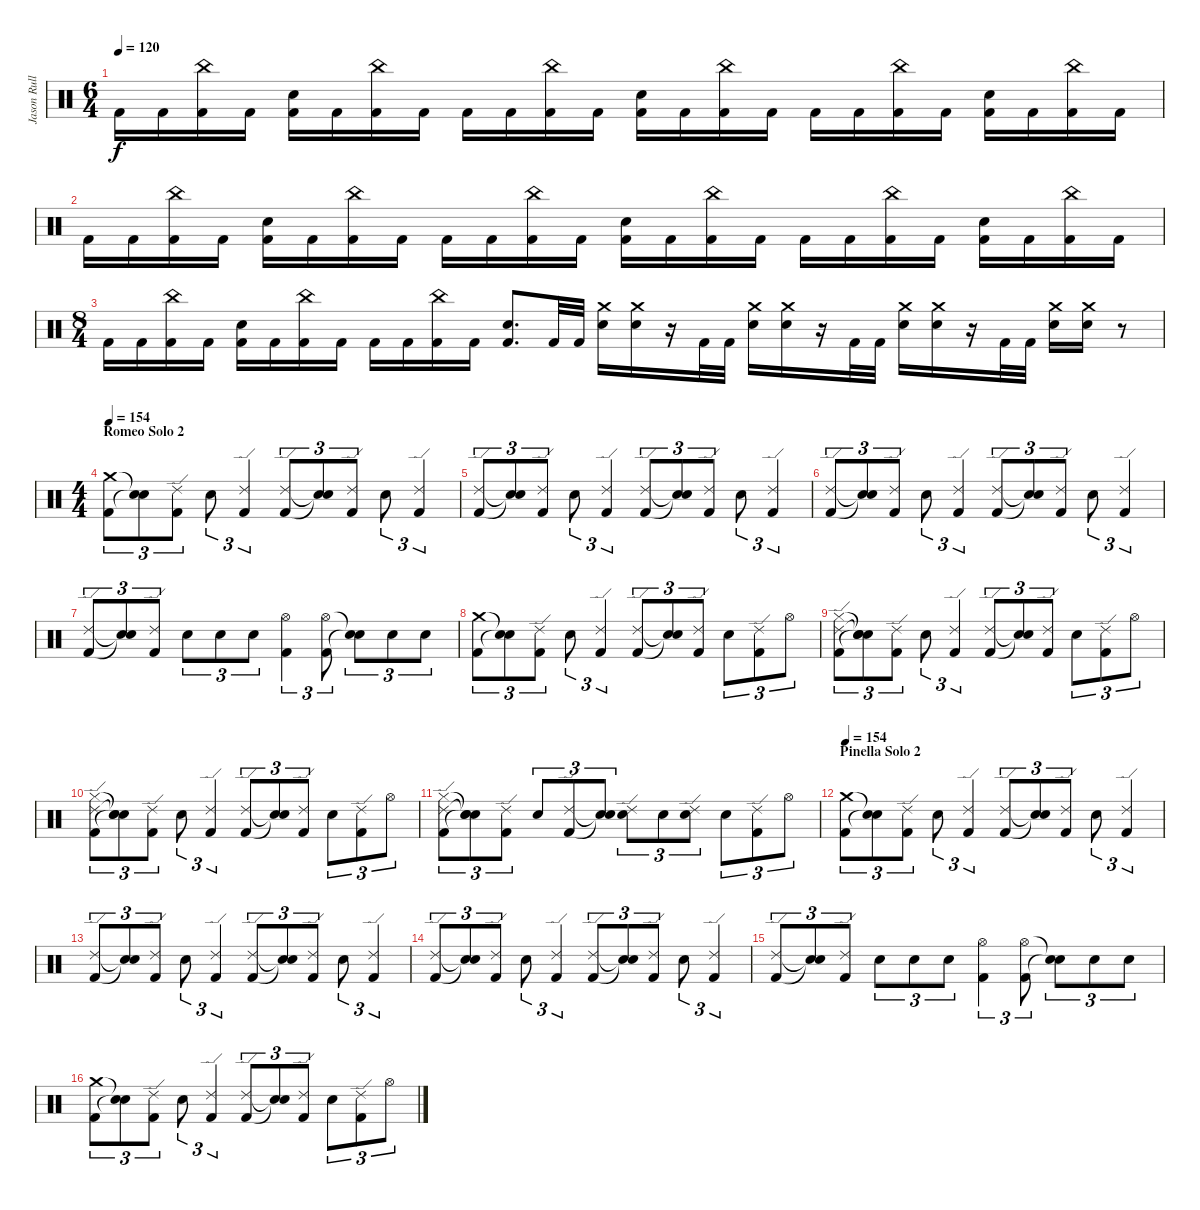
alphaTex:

\track ("Jason Rullo" "Jason Rull") {instrument percussion}
\staff {score}
\articulation defaults
\ts (6 4)
\tempo 120
\clef neutral
\ks c "Kick (hit) 2".16{dy f} "Kick (hit) 2".16
("China (hit)" "Kick (hit) 2").16 "Kick (hit) 2".16 ("Electric Snare (hit)" "Kick (hit) 2").16 "Kick (hit) 2".16 ("China (hit)" "Kick (hit) 2").16 "Kick (hit) 2".16 "Kick (hit) 2".16 "Kick (hit) 2".16 ("China (hit)" "Kick (hit) 2").16 "Kick (hit) 2".16 ("Electric Snare (hit)" "Kick (hit) 2").16 "Kick (hit) 2".16 ("China (hit)" "Kick (hit) 2").16 "Kick (hit) 2".16 "Kick (hit) 2".16 "Kick (hit) 2".16 ("China (hit)" "Kick (hit) 2").16 "Kick (hit) 2".16 ("Electric Snare (hit)" "Kick (hit) 2").16 "Kick (hit) 2".16 ("China (hit)" "Kick (hit) 2").16 "Kick (hit) 2".16 |
"Kick (hit) 2".16 "Kick (hit) 2".16 ("China (hit)" "Kick (hit) 2").16 "Kick (hit) 2".16 ("Electric Snare (hit)" "Kick (hit) 2").16 "Kick (hit) 2".16 ("China (hit)" "Kick (hit) 2").16 "Kick (hit) 2".16 "Kick (hit) 2".16 "Kick (hit) 2".16 ("China (hit)" "Kick (hit) 2").16 "Kick (hit) 2".16 ("Electric Snare (hit)" "Kick (hit) 2").16 "Kick (hit) 2".16 ("China (hit)" "Kick (hit) 2").16 "Kick (hit) 2".16 "Kick (hit) 2".16 "Kick (hit) 2".16 ("China (hit)" "Kick (hit) 2").16 "Kick (hit) 2".16 ("Electric Snare (hit)" "Kick (hit) 2").16 "Kick (hit) 2".16 ("China (hit)" "Kick (hit) 2").16 "Kick (hit) 2".16 |
\ts (8 4)
"Kick (hit) 2".16 "Kick (hit) 2".16 ("China (hit)" "Kick (hit) 2").16 "Kick (hit) 2".16 ("Electric Snare (hit)" "Kick (hit) 2").16 "Kick (hit) 2".16 ("China (hit)" "Kick (hit) 2").16 "Kick (hit) 2".16 "Kick (hit) 2".16 "Kick (hit) 2".16 ("China (hit)" "Kick (hit) 2").16 "Kick (hit) 2".16 ("Electric Snare (hit)" "Kick (hit) 2").8{d} "Kick (hit) 2".32 "Kick (hit) 2".32 ("Crash medium (hit)" "Electric Snare (hit)").16 ("Crash medium (hit)" "Electric Snare (hit)").16 r.16 "Kick (hit) 2".32 "Kick (hit) 2".32 ("Crash medium (hit)" "Electric Snare (hit)").16 ("Crash medium (hit)" "Electric Snare (hit)").16 r.16 "Kick (hit) 2".32 "Kick (hit) 2".32 ("Crash medium (hit)" "Electric Snare (hit)").16 ("Crash medium (hit)" "Electric Snare (hit)").16 r.16 "Kick (hit) 2".32 "Kick (hit) 2".32 ("Crash medium (hit)" "Electric Snare (hit)").16 ("Crash medium (hit)" "Electric Snare (hit)").16 r.8 |
\ts (4 4)
\section ("" "Romeo Solo 2")
\tempo 154
("Crash medium (hit)" "Kick (hit) 2").8{tu (3 2)} ("Snare (hit)"{t} "Snare (hit)"{t}).8{tu (3 2)} ("Ride (edge) 2" "Kick (hit) 2").8{tu (3 2)} "Electric Snare (hit)".8{tu (3 2)} ("Ride (edge) 2" "Kick (hit) 2").4{tu (3 2)} ("Ride (edge) 2" "Kick (hit) 2").8{tu (3 2)} ("Snare (hit)"{t} "Snare (hit)"{t}).8{tu (3 2)} ("Ride (edge) 2" "Kick (hit) 2").8{tu (3 2)} "Electric Snare (hit)".8{tu (3 2)} ("Ride (edge) 2" "Kick (hit) 2").4{tu (3 2)} |
("Ride (edge) 2" "Kick (hit) 2").8{tu (3 2)} ("Snare (hit)"{t} "Snare (hit)"{t}).8{tu (3 2)} ("Ride (edge) 2" "Kick (hit) 2").8{tu (3 2)} "Electric Snare (hit)".8{tu (3 2)} ("Ride (edge) 2" "Kick (hit) 2").4{tu (3 2)} ("Ride (edge) 2" "Kick (hit) 2").8{tu (3 2)} ("Snare (hit)"{t} "Snare (hit)"{t}).8{tu (3 2)} ("Ride (edge) 2" "Kick (hit) 2").8{tu (3 2)} "Electric Snare (hit)".8{tu (3 2)} ("Ride (edge) 2" "Kick (hit) 2").4{tu (3 2)} |
("Ride (edge) 2" "Kick (hit) 2").8{tu (3 2)} ("Snare (hit)"{t} "Snare (hit)"{t}).8{tu (3 2)} ("Ride (edge) 2" "Kick (hit) 2").8{tu (3 2)} "Electric Snare (hit)".8{tu (3 2)} ("Ride (edge) 2" "Kick (hit) 2").4{tu (3 2)} ("Ride (edge) 2" "Kick (hit) 2").8{tu (3 2)} ("Snare (hit)"{t} "Snare (hit)"{t}).8{tu (3 2)} ("Ride (edge) 2" "Kick (hit) 2").8{tu (3 2)} "Electric Snare (hit)".8{tu (3 2)} ("Ride (edge) 2" "Kick (hit) 2").4{tu (3 2)} |
("Ride (edge) 2" "Kick (hit) 2").8{tu (3 2)} ("Snare (hit)"{t} "Snare (hit)"{t}).8{tu (3 2)} ("Ride (edge) 2" "Kick (hit) 2").8{tu (3 2)} "Electric Snare (hit)".8{tu (3 2)} "Electric Snare (hit)".8{tu (3 2)} "Electric Snare (hit)".8{tu (3 2)} ("Hi-Hat (open)" "Kick (hit) 2").4{tu (3 2)} ("Hi-Hat (open)" "Kick (hit) 2").8{tu (3 2)} ("Snare (hit)"{t} "Snare (hit)"{t}).8{tu (3 2)} "Electric Snare (hit)".8{tu (3 2)} "Electric Snare (hit)".8{tu (3 2)} |
("Crash medium (hit)" "Kick (hit) 2").8{tu (3 2)} ("Snare (hit)"{t} "Snare (hit)"{t}).8{tu (3 2)} ("Ride (edge) 2" "Kick (hit) 2").8{tu (3 2)} "Electric Snare (hit)".8{tu (3 2)} ("Ride (edge) 2" "Kick (hit) 2").4{tu (3 2)} ("Ride (edge) 2" "Kick (hit) 2").8{tu (3 2)} ("Snare (hit)"{t} "Snare (hit)"{t}).8{tu (3 2)} ("Ride (edge) 2" "Kick (hit) 2").8{tu (3 2)} "Electric Snare (hit)".8{tu (3 2)} ("Ride (edge) 2" "Kick (hit) 2").8{tu (3 2)} "Hi-Hat (open)".8{tu (3 2)} |
("Hi-Hat (closed)" "Ride (edge) 2" "Kick (hit) 2").8{tu (3 2)} ("Snare (hit)"{t} "Snare (hit)"{t} "Snare (hit)"{t}).8{tu (3 2)} ("Ride (edge) 2" "Kick (hit) 2").8{tu (3 2)} "Electric Snare (hit)".8{tu (3 2)} ("Ride (edge) 2" "Kick (hit) 2").4{tu (3 2)} ("Ride (edge) 2" "Kick (hit) 2").8{tu (3 2)} ("Snare (hit)"{t} "Snare (hit)"{t}).8{tu (3 2)} ("Ride (edge) 2" "Kick (hit) 2").8{tu (3 2)} "Electric Snare (hit)".8{tu (3 2)} ("Ride (edge) 2" "Kick (hit) 2").8{tu (3 2)} "Hi-Hat (open)".8{tu (3 2)} |
("Hi-Hat (closed)" "Ride (edge) 2" "Kick (hit) 2").8{tu (3 2)} ("Snare (hit)"{t} "Snare (hit)"{t} "Snare (hit)"{t}).8{tu (3 2)} ("Ride (edge) 2" "Kick (hit) 2").8{tu (3 2)} "Electric Snare (hit)".8{tu (3 2)} ("Ride (edge) 2" "Kick (hit) 2").4{tu (3 2)} ("Ride (edge) 2" "Kick (hit) 2").8{tu (3 2)} ("Snare (hit)"{t} "Snare (hit)"{t}).8{tu (3 2)} ("Ride (edge) 2" "Kick (hit) 2").8{tu (3 2)} "Electric Snare (hit)".8{tu (3 2)} ("Ride (edge) 2" "Kick (hit) 2").8{tu (3 2)} "Hi-Hat (open)".8{tu (3 2)} |
("Hi-Hat (closed)" "Ride (edge) 2" "Kick (hit) 2").8{tu (3 2)} ("Snare (hit)"{t} "Snare (hit)"{t} "Snare (hit)"{t}).8{tu (3 2)} ("Ride (edge) 2" "Kick (hit) 2").8{tu (3 2)} "Electric Snare (hit)".8{tu (3 2)} ("Ride (edge) 2" "Kick (hit) 2").8{tu (3 2)} ("Snare (hit)"{t} "Snare (hit)"{t}).8{tu (3 2)} ("Electric Snare (hit)" "Ride (edge) 2").8{tu (3 2)} "Electric Snare (hit)".8{tu (3 2)} ("Electric Snare (hit)" "Ride (edge) 2").8{tu (3 2)} "Electric Snare (hit)".8{tu (3 2)} ("Ride (edge) 2" "Kick (hit) 2").8{tu (3 2)} "Hi-Hat (open)".8{tu (3 2)} |
\section ("" "Pinella Solo 2")
\tempo 154
("Crash medium (hit)" "Kick (hit) 2").8{tu (3 2)} ("Snare (hit)"{t} "Snare (hit)"{t}).8{tu (3 2)} ("Ride (edge) 2" "Kick (hit) 2").8{tu (3 2)} "Electric Snare (hit)".8{tu (3 2)} ("Ride (edge) 2" "Kick (hit) 2").4{tu (3 2)} ("Ride (edge) 2" "Kick (hit) 2").8{tu (3 2)} ("Snare (hit)"{t} "Snare (hit)"{t}).8{tu (3 2)} ("Ride (edge) 2" "Kick (hit) 2").8{tu (3 2)} "Electric Snare (hit)".8{tu (3 2)} ("Ride (edge) 2" "Kick (hit) 2").4{tu (3 2)} |
("Ride (edge) 2" "Kick (hit) 2").8{tu (3 2)} ("Snare (hit)"{t} "Snare (hit)"{t}).8{tu (3 2)} ("Ride (edge) 2" "Kick (hit) 2").8{tu (3 2)} "Electric Snare (hit)".8{tu (3 2)} ("Ride (edge) 2" "Kick (hit) 2").4{tu (3 2)} ("Ride (edge) 2" "Kick (hit) 2").8{tu (3 2)} ("Snare (hit)"{t} "Snare (hit)"{t}).8{tu (3 2)} ("Ride (edge) 2" "Kick (hit) 2").8{tu (3 2)} "Electric Snare (hit)".8{tu (3 2)} ("Ride (edge) 2" "Kick (hit) 2").4{tu (3 2)} |
("Ride (edge) 2" "Kick (hit) 2").8{tu (3 2)} ("Snare (hit)"{t} "Snare (hit)"{t}).8{tu (3 2)} ("Ride (edge) 2" "Kick (hit) 2").8{tu (3 2)} "Electric Snare (hit)".8{tu (3 2)} ("Ride (edge) 2" "Kick (hit) 2").4{tu (3 2)} ("Ride (edge) 2" "Kick (hit) 2").8{tu (3 2)} ("Snare (hit)"{t} "Snare (hit)"{t}).8{tu (3 2)} ("Ride (edge) 2" "Kick (hit) 2").8{tu (3 2)} "Electric Snare (hit)".8{tu (3 2)} ("Ride (edge) 2" "Kick (hit) 2").4{tu (3 2)} |
("Ride (edge) 2" "Kick (hit) 2").8{tu (3 2)} ("Snare (hit)"{t} "Snare (hit)"{t}).8{tu (3 2)} ("Ride (edge) 2" "Kick (hit) 2").8{tu (3 2)} "Electric Snare (hit)".8{tu (3 2)} "Electric Snare (hit)".8{tu (3 2)} "Electric Snare (hit)".8{tu (3 2)} ("Hi-Hat (open)" "Kick (hit) 2").4{tu (3 2)} ("Hi-Hat (open)" "Kick (hit) 2").8{tu (3 2)} ("Snare (hit)"{t} "Snare (hit)"{t}).8{tu (3 2)} "Electric Snare (hit)".8{tu (3 2)} "Electric Snare (hit)".8{tu (3 2)} |
("Crash medium (hit)" "Kick (hit) 2").8{tu (3 2)} ("Snare (hit)"{t} "Snare (hit)"{t}).8{tu (3 2)} ("Ride (edge) 2" "Kick (hit) 2").8{tu (3 2)} "Electric Snare (hit)".8{tu (3 2)} ("Ride (edge) 2" "Kick (hit) 2").4{tu (3 2)} ("Ride (edge) 2" "Kick (hit) 2").8{tu (3 2)} ("Snare (hit)"{t} "Snare (hit)"{t}).8{tu (3 2)} ("Ride (edge) 2" "Kick (hit) 2").8{tu (3 2)} "Electric Snare (hit)".8{tu (3 2)} ("Ride (edge) 2" "Kick (hit) 2").8{tu (3 2)} "Hi-Hat (open)".8{tu (3 2)}
